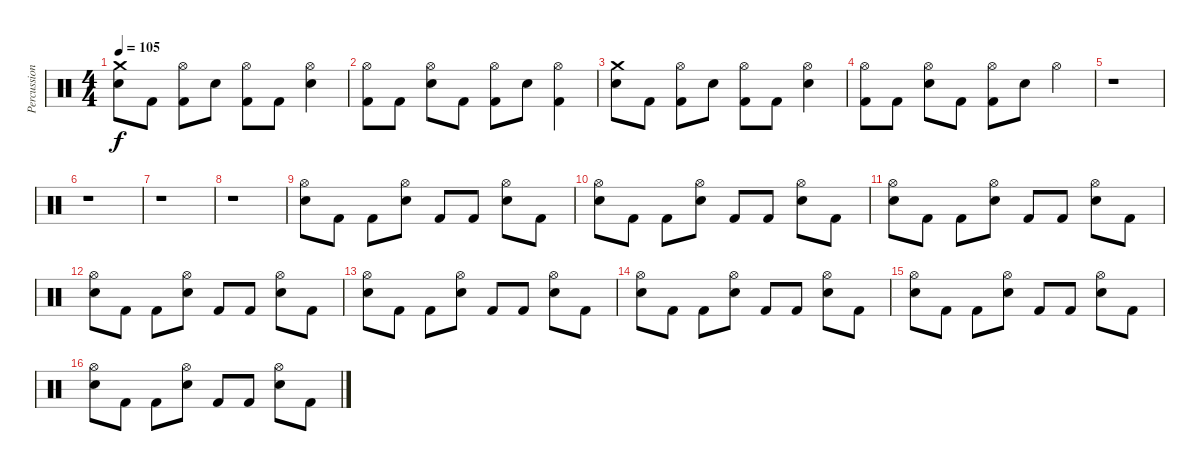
\track ("Percussion" "Percussion") {instrument percussion}
\staff {score}
\articulation defaults
\ts (4 4)
\tempo 105
\clef neutral
\ks c
("Crash medium (hit)" "Snare (hit) 2").8{dy f} "Kick (hit) 2".8 ("Hi-Hat (open)" "Kick (hit) 2").8 "Snare (hit) 2".8 ("Hi-Hat (open)" "Kick (hit) 2").8 "Kick (hit) 2".8 ("Hi-Hat (open)" "Snare (hit) 2").4 |
("Hi-Hat (open)" "Kick (hit) 2").8 "Kick (hit) 2".8 ("Hi-Hat (open)" "Snare (hit) 2").8 "Kick (hit) 2".8 ("Hi-Hat (open)" "Kick (hit) 2").8 "Snare (hit) 2".8 ("Hi-Hat (open)" "Kick (hit) 2").4 |
("Crash medium (hit)" "Snare (hit) 2").8 "Kick (hit) 2".8 ("Hi-Hat (open)" "Kick (hit) 2").8 "Snare (hit) 2".8 ("Hi-Hat (open)" "Kick (hit) 2").8 "Kick (hit) 2".8 ("Hi-Hat (open)" "Snare (hit) 2").4 |
("Hi-Hat (open)" "Kick (hit) 2").8 "Kick (hit) 2".8 ("Hi-Hat (open)" "Snare (hit) 2").8 "Kick (hit) 2".8 ("Hi-Hat (open)" "Kick (hit) 2").8 "Snare (hit) 2".8 "Hi-Hat (open)".4 |
r.1 |
r.1 |
r.1 |
r.1 |
("Hi-Hat (open)" "Snare (hit) 2").8 "Kick (hit) 2".8 "Kick (hit) 2".8 ("Hi-Hat (open)" "Snare (hit) 2").8 "Kick (hit) 2".8 "Kick (hit) 2".8 ("Hi-Hat (open)" "Snare (hit) 2").8 "Kick (hit) 2".8 |
("Hi-Hat (open)" "Snare (hit) 2").8 "Kick (hit) 2".8 "Kick (hit) 2".8 ("Hi-Hat (open)" "Snare (hit) 2").8 "Kick (hit) 2".8 "Kick (hit) 2".8 ("Hi-Hat (open)" "Snare (hit) 2").8 "Kick (hit) 2".8 |
("Hi-Hat (open)" "Snare (hit) 2").8 "Kick (hit) 2".8 "Kick (hit) 2".8 ("Hi-Hat (open)" "Snare (hit) 2").8 "Kick (hit) 2".8 "Kick (hit) 2".8 ("Hi-Hat (open)" "Snare (hit) 2").8 "Kick (hit) 2".8 |
("Hi-Hat (open)" "Snare (hit) 2").8 "Kick (hit) 2".8 "Kick (hit) 2".8 ("Hi-Hat (open)" "Snare (hit) 2").8 "Kick (hit) 2".8 "Kick (hit) 2".8 ("Hi-Hat (open)" "Snare (hit) 2").8 "Kick (hit) 2".8 |
("Hi-Hat (open)" "Snare (hit) 2").8 "Kick (hit) 2".8 "Kick (hit) 2".8 ("Hi-Hat (open)" "Snare (hit) 2").8 "Kick (hit) 2".8 "Kick (hit) 2".8 ("Hi-Hat (open)" "Snare (hit) 2").8 "Kick (hit) 2".8 |
("Hi-Hat (open)" "Snare (hit) 2").8 "Kick (hit) 2".8 "Kick (hit) 2".8 ("Hi-Hat (open)" "Snare (hit) 2").8 "Kick (hit) 2".8 "Kick (hit) 2".8 ("Hi-Hat (open)" "Snare (hit) 2").8 "Kick (hit) 2".8 |
("Hi-Hat (open)" "Snare (hit) 2").8 "Kick (hit) 2".8 "Kick (hit) 2".8 ("Hi-Hat (open)" "Snare (hit) 2").8 "Kick (hit) 2".8 "Kick (hit) 2".8 ("Hi-Hat (open)" "Snare (hit) 2").8 "Kick (hit) 2".8 |
("Hi-Hat (open)" "Snare (hit) 2").8 "Kick (hit) 2".8 "Kick (hit) 2".8 ("Hi-Hat (open)" "Snare (hit) 2").8 "Kick (hit) 2".8 "Kick (hit) 2".8 ("Hi-Hat (open)" "Snare (hit) 2").8 "Kick (hit) 2".8
